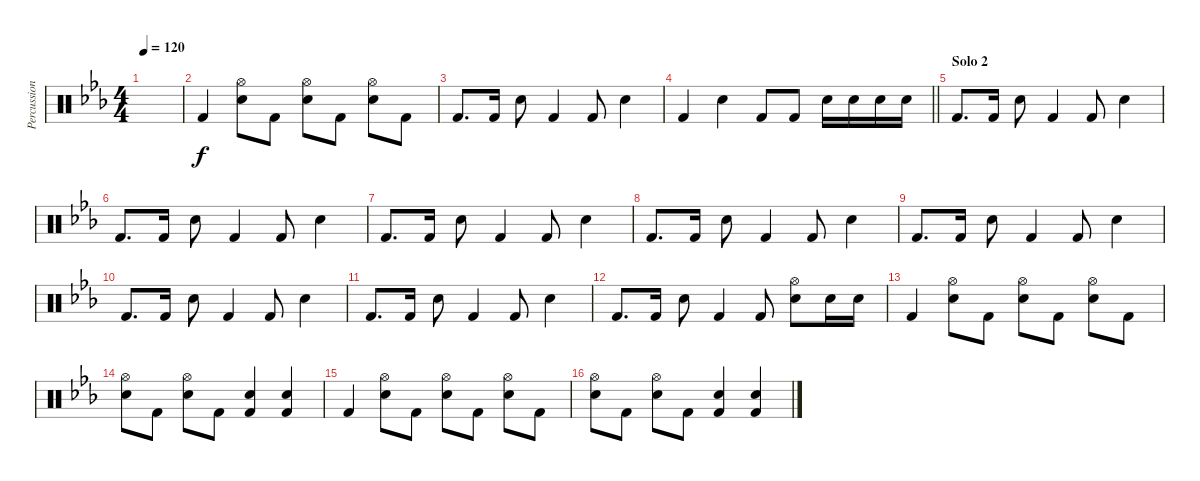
\track ("Percussion" "Percussion") {instrument percussion}
\staff {score}
\articulation defaults
\ts (4 4)
\tempo 120
\clef neutral
\ks cminor
|
"Kick (hit) 2".4 ("Snare (hit) 2" "Hi-Hat (open)").8 "Kick (hit) 2".8 ("Snare (hit) 2" "Hi-Hat (open)").8 "Kick (hit) 2".8 ("Snare (hit) 2" "Hi-Hat (open)").8 "Kick (hit) 2".8 |
"Kick (hit) 2".8{d} "Kick (hit) 2".16 "Snare (hit) 2".8 "Kick (hit) 2".4 "Kick (hit) 2".8 "Snare (hit) 2".4 |
\barLineRight lightlight "Kick (hit) 2".4 "Snare (hit) 2".4 "Kick (hit) 2".8 "Kick (hit) 2".8 "Snare (hit) 2".16 "Snare (hit) 2".16 "Snare (hit) 2".16 "Snare (hit) 2".16
|
\section ("" "Solo 2")
"Kick (hit) 2".8{d} "Kick (hit) 2".16 "Snare (hit) 2".8 "Kick (hit) 2".4 "Kick (hit) 2".8 "Snare (hit) 2".4 |
"Kick (hit) 2".8{d} "Kick (hit) 2".16 "Snare (hit) 2".8 "Kick (hit) 2".4 "Kick (hit) 2".8 "Snare (hit) 2".4 |
"Kick (hit) 2".8{d} "Kick (hit) 2".16 "Snare (hit) 2".8 "Kick (hit) 2".4 "Kick (hit) 2".8 "Snare (hit) 2".4 |
"Kick (hit) 2".8{d} "Kick (hit) 2".16 "Snare (hit) 2".8 "Kick (hit) 2".4 "Kick (hit) 2".8 "Snare (hit) 2".4 |
"Kick (hit) 2".8{d} "Kick (hit) 2".16 "Snare (hit) 2".8 "Kick (hit) 2".4 "Kick (hit) 2".8 "Snare (hit) 2".4 |
"Kick (hit) 2".8{d} "Kick (hit) 2".16 "Snare (hit) 2".8 "Kick (hit) 2".4 "Kick (hit) 2".8 "Snare (hit) 2".4 |
"Kick (hit) 2".8{d volume 0} "Kick (hit) 2".16 "Snare (hit) 2".8 "Kick (hit) 2".4 "Kick (hit) 2".8 "Snare (hit) 2".4 |
"Kick (hit) 2".8{d} "Kick (hit) 2".16 "Snare (hit) 2".8 "Kick (hit) 2".4 "Kick (hit) 2".8 ("Snare (hit) 2" "Hi-Hat (open)").8 "Snare (hit) 2".16 "Snare (hit) 2".16 |
"Kick (hit) 2".4 ("Snare (hit) 2" "Hi-Hat (open)").8 "Kick (hit) 2".8 ("Snare (hit) 2" "Hi-Hat (open)").8 "Kick (hit) 2".8 ("Snare (hit) 2" "Hi-Hat (open)").8 "Kick (hit) 2".8 |
("Snare (hit) 2" "Hi-Hat (open)").8 "Kick (hit) 2".8 ("Snare (hit) 2" "Hi-Hat (open)").8 "Kick (hit) 2".8 ("Snare (hit) 2" "Kick (hit) 2").4 ("Snare (hit) 2" "Kick (hit) 2").4 |
"Kick (hit) 2".4 ("Snare (hit) 2" "Hi-Hat (open)").8 "Kick (hit) 2".8 ("Snare (hit) 2" "Hi-Hat (open)").8 "Kick (hit) 2".8 ("Snare (hit) 2" "Hi-Hat (open)").8 "Kick (hit) 2".8 |
("Snare (hit) 2" "Hi-Hat (open)").8 "Kick (hit) 2".8 ("Snare (hit) 2" "Hi-Hat (open)").8 "Kick (hit) 2".8 ("Snare (hit) 2" "Kick (hit) 2").4 ("Snare (hit) 2" "Kick (hit) 2").4
